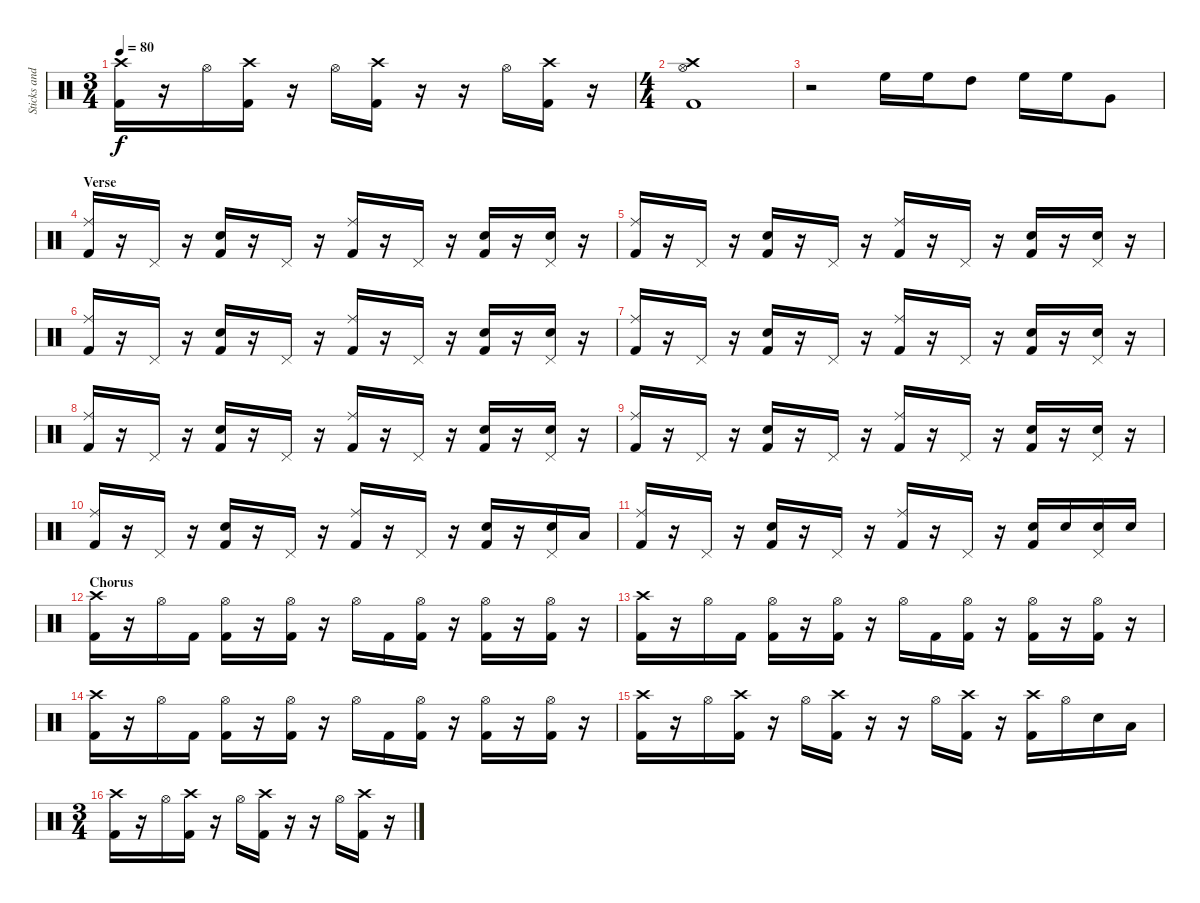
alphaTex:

\track ("Sticks and Skins" "Sticks and") {instrument percussion}
\staff {score}
\articulation defaults
\ts (3 4)
\tempo 80
\clef neutral
\ks c
("Crash high (hit)" "Kick (hit) 2").16{dy f} r.16 "Hi-Hat (open)".16 ("Crash high (hit)" "Kick (hit) 2").16 r.16 "Hi-Hat (open)".16 ("Crash high (hit)" "Kick (hit) 2").16 r.16 r.16 "Hi-Hat (open)".16 ("Crash high (hit)" "Kick (hit) 2").16 r.16 |
\ts (4 4)
("Crash high (hit)" "Hi-Hat (open)" "Kick (hit) 2").1 |
r.2 "High Floor Tom (hit)".16 "High Floor Tom (hit)".16 "High Tom (hit)".8 "High Floor Tom (hit)".16 "High Floor Tom (hit)".16 "Very Low Tom (hit)".8 |
\section ("" "Verse")
("Ride (middle)" "Kick (hit) 2").16 r.16 "Pedal Hi-Hat (hit)".16 r.16 ("Electric Snare (hit)" "Kick (hit) 2").16 r.16 "Pedal Hi-Hat (hit)".16 r.16 ("Ride (middle)" "Kick (hit) 2").16 r.16 "Pedal Hi-Hat (hit)".16 r.16 ("Electric Snare (hit)" "Kick (hit) 2").16 r.16 ("Electric Snare (hit)" "Pedal Hi-Hat (hit)").16 r.16 |
("Ride (middle)" "Kick (hit) 2").16 r.16 "Pedal Hi-Hat (hit)".16 r.16 ("Electric Snare (hit)" "Kick (hit) 2").16 r.16 "Pedal Hi-Hat (hit)".16 r.16 ("Ride (middle)" "Kick (hit) 2").16 r.16 "Pedal Hi-Hat (hit)".16 r.16 ("Electric Snare (hit)" "Kick (hit) 2").16 r.16 ("Electric Snare (hit)" "Pedal Hi-Hat (hit)").16 r.16 |
("Ride (middle)" "Kick (hit) 2").16 r.16 "Pedal Hi-Hat (hit)".16 r.16 ("Electric Snare (hit)" "Kick (hit) 2").16 r.16 "Pedal Hi-Hat (hit)".16 r.16 ("Ride (middle)" "Kick (hit) 2").16 r.16 "Pedal Hi-Hat (hit)".16 r.16 ("Electric Snare (hit)" "Kick (hit) 2").16 r.16 ("Electric Snare (hit)" "Pedal Hi-Hat (hit)").16 r.16 |
("Ride (middle)" "Kick (hit) 2").16 r.16 "Pedal Hi-Hat (hit)".16 r.16 ("Electric Snare (hit)" "Kick (hit) 2").16 r.16 "Pedal Hi-Hat (hit)".16 r.16 ("Ride (middle)" "Kick (hit) 2").16 r.16 "Pedal Hi-Hat (hit)".16 r.16 ("Electric Snare (hit)" "Kick (hit) 2").16 r.16 ("Electric Snare (hit)" "Pedal Hi-Hat (hit)").16 r.16 |
("Ride (middle)" "Kick (hit) 2").16 r.16 "Pedal Hi-Hat (hit)".16 r.16 ("Electric Snare (hit)" "Kick (hit) 2").16 r.16 "Pedal Hi-Hat (hit)".16 r.16 ("Ride (middle)" "Kick (hit) 2").16 r.16 "Pedal Hi-Hat (hit)".16 r.16 ("Electric Snare (hit)" "Kick (hit) 2").16 r.16 ("Electric Snare (hit)" "Pedal Hi-Hat (hit)").16 r.16 |
("Ride (middle)" "Kick (hit) 2").16 r.16 "Pedal Hi-Hat (hit)".16 r.16 ("Electric Snare (hit)" "Kick (hit) 2").16 r.16 "Pedal Hi-Hat (hit)".16 r.16 ("Ride (middle)" "Kick (hit) 2").16 r.16 "Pedal Hi-Hat (hit)".16 r.16 ("Electric Snare (hit)" "Kick (hit) 2").16 r.16 ("Electric Snare (hit)" "Pedal Hi-Hat (hit)").16 r.16 |
("Ride (middle)" "Kick (hit) 2").16 r.16 "Pedal Hi-Hat (hit)".16 r.16 ("Electric Snare (hit)" "Kick (hit) 2").16 r.16 "Pedal Hi-Hat (hit)".16 r.16 ("Ride (middle)" "Kick (hit) 2").16 r.16 "Pedal Hi-Hat (hit)".16 r.16 ("Electric Snare (hit)" "Kick (hit) 2").16 r.16 ("Electric Snare (hit)" "Pedal Hi-Hat (hit)").16 "Low Floor Tom (hit)".16 |
("Ride (middle)" "Kick (hit) 2").16 r.16 "Pedal Hi-Hat (hit)".16 r.16 ("Electric Snare (hit)" "Kick (hit) 2").16 r.16 "Pedal Hi-Hat (hit)".16 r.16 ("Ride (middle)" "Kick (hit) 2").16 r.16 "Pedal Hi-Hat (hit)".16 r.16 ("Electric Snare (hit)" "Kick (hit) 2").16 "Electric Snare (hit)".16 ("Electric Snare (hit)" "Pedal Hi-Hat (hit)").16 "Electric Snare (hit)".16 |
\section ("" "Chorus")
("Crash high (hit)" "Kick (hit) 2").16 r.16 "Hi-Hat (open)".16 "Kick (hit) 2".16 ("Hi-Hat (open)" "Kick (hit) 2").16 r.16 ("Hi-Hat (open)" "Kick (hit) 2").16 r.16 "Hi-Hat (open)".16 "Kick (hit) 2".16 ("Hi-Hat (open)" "Kick (hit) 2").16 r.16 ("Hi-Hat (open)" "Kick (hit) 2").16 r.16 ("Hi-Hat (open)" "Kick (hit) 2").16 r.16 |
("Crash high (hit)" "Kick (hit) 2").16 r.16 "Hi-Hat (open)".16 "Kick (hit) 2".16 ("Hi-Hat (open)" "Kick (hit) 2").16 r.16 ("Hi-Hat (open)" "Kick (hit) 2").16 r.16 "Hi-Hat (open)".16 "Kick (hit) 2".16 ("Hi-Hat (open)" "Kick (hit) 2").16 r.16 ("Hi-Hat (open)" "Kick (hit) 2").16 r.16 ("Hi-Hat (open)" "Kick (hit) 2").16 r.16 |
("Crash high (hit)" "Kick (hit) 2").16 r.16 "Hi-Hat (open)".16 "Kick (hit) 2".16 ("Hi-Hat (open)" "Kick (hit) 2").16 r.16 ("Hi-Hat (open)" "Kick (hit) 2").16 r.16 "Hi-Hat (open)".16 "Kick (hit) 2".16 ("Hi-Hat (open)" "Kick (hit) 2").16 r.16 ("Hi-Hat (open)" "Kick (hit) 2").16 r.16 ("Hi-Hat (open)" "Kick (hit) 2").16 r.16 |
("Crash high (hit)" "Kick (hit) 2").16 r.16 "Hi-Hat (open)".16 ("Crash high (hit)" "Kick (hit) 2").16 r.16 "Hi-Hat (open)".16 ("Crash high (hit)" "Kick (hit) 2").16 r.16 r.16 "Hi-Hat (open)".16 ("Crash high (hit)" "Kick (hit) 2").16 r.16 ("Crash high (hit)" "Kick (hit) 2").16 "Hi-Hat (open)".16 "Electric Snare (hit)".16 "Low Tom (hit)".16 |
\ts (3 4)
("Crash high (hit)" "Kick (hit) 2").16 r.16 "Hi-Hat (open)".16 ("Crash high (hit)" "Kick (hit) 2").16 r.16 "Hi-Hat (open)".16 ("Crash high (hit)" "Kick (hit) 2").16 r.16 r.16 "Hi-Hat (open)".16 ("Crash high (hit)" "Kick (hit) 2").16 r.16
